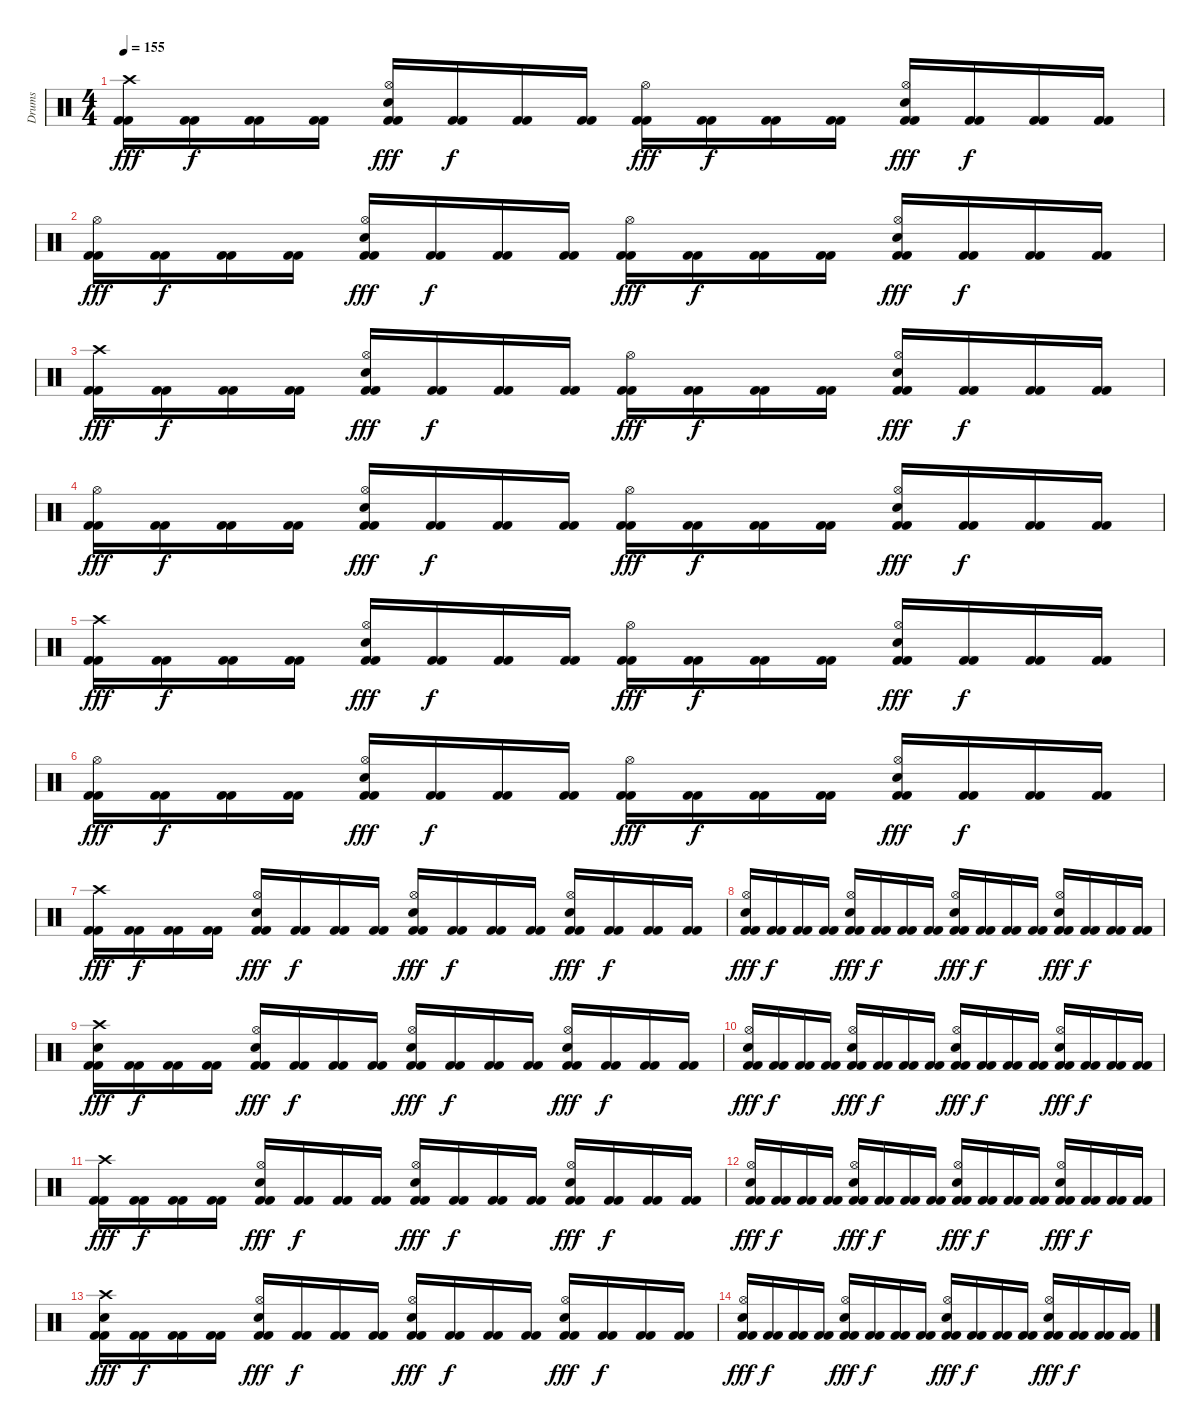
\track ("Drums" "Drums") {instrument percussion}
\staff {score}
\articulation defaults
\ts (4 4)
\tempo 155
\clef neutral
\ks c
("Crash high (hit)" "Kick (hit) 2" "Kick (hit) 2").16{dy fff} ("Kick (hit) 2" "Kick (hit) 2").16{dy f} ("Kick (hit) 2" "Kick (hit) 2").16 ("Kick (hit) 2" "Kick (hit) 2").16 ("Hi-Hat (open)" "Kick (hit) 2" "Kick (hit) 2" "Snare (hit) 2").16{dy fff} ("Kick (hit) 2" "Kick (hit) 2").16{dy f} ("Kick (hit) 2" "Kick (hit) 2").16 ("Kick (hit) 2" "Kick (hit) 2").16 ("Hi-Hat (open)" "Kick (hit) 2" "Kick (hit) 2").16{dy fff} ("Kick (hit) 2" "Kick (hit) 2").16{dy f} ("Kick (hit) 2" "Kick (hit) 2").16 ("Kick (hit) 2" "Kick (hit) 2").16 ("Hi-Hat (open)" "Kick (hit) 2" "Kick (hit) 2" "Snare (hit) 2").16{dy fff} ("Kick (hit) 2" "Kick (hit) 2").16{dy f} ("Kick (hit) 2" "Kick (hit) 2").16 ("Kick (hit) 2" "Kick (hit) 2").16 |
("Hi-Hat (open)" "Kick (hit) 2" "Kick (hit) 2").16{dy fff} ("Kick (hit) 2" "Kick (hit) 2").16{dy f} ("Kick (hit) 2" "Kick (hit) 2").16 ("Kick (hit) 2" "Kick (hit) 2").16 ("Hi-Hat (open)" "Kick (hit) 2" "Kick (hit) 2" "Snare (hit) 2").16{dy fff} ("Kick (hit) 2" "Kick (hit) 2").16{dy f} ("Kick (hit) 2" "Kick (hit) 2").16 ("Kick (hit) 2" "Kick (hit) 2").16 ("Hi-Hat (open)" "Kick (hit) 2" "Kick (hit) 2").16{dy fff} ("Kick (hit) 2" "Kick (hit) 2").16{dy f} ("Kick (hit) 2" "Kick (hit) 2").16 ("Kick (hit) 2" "Kick (hit) 2").16 ("Hi-Hat (open)" "Kick (hit) 2" "Kick (hit) 2" "Snare (hit) 2").16{dy fff} ("Kick (hit) 2" "Kick (hit) 2").16{dy f} ("Kick (hit) 2" "Kick (hit) 2").16 ("Kick (hit) 2" "Kick (hit) 2").16 |
("Crash high (hit)" "Kick (hit) 2" "Kick (hit) 2").16{dy fff} ("Kick (hit) 2" "Kick (hit) 2").16{dy f} ("Kick (hit) 2" "Kick (hit) 2").16 ("Kick (hit) 2" "Kick (hit) 2").16 ("Hi-Hat (open)" "Kick (hit) 2" "Kick (hit) 2" "Snare (hit) 2").16{dy fff} ("Kick (hit) 2" "Kick (hit) 2").16{dy f} ("Kick (hit) 2" "Kick (hit) 2").16 ("Kick (hit) 2" "Kick (hit) 2").16 ("Hi-Hat (open)" "Kick (hit) 2" "Kick (hit) 2").16{dy fff} ("Kick (hit) 2" "Kick (hit) 2").16{dy f} ("Kick (hit) 2" "Kick (hit) 2").16 ("Kick (hit) 2" "Kick (hit) 2").16 ("Hi-Hat (open)" "Kick (hit) 2" "Kick (hit) 2" "Snare (hit) 2").16{dy fff} ("Kick (hit) 2" "Kick (hit) 2").16{dy f} ("Kick (hit) 2" "Kick (hit) 2").16 ("Kick (hit) 2" "Kick (hit) 2").16 |
("Hi-Hat (open)" "Kick (hit) 2" "Kick (hit) 2").16{dy fff} ("Kick (hit) 2" "Kick (hit) 2").16{dy f} ("Kick (hit) 2" "Kick (hit) 2").16 ("Kick (hit) 2" "Kick (hit) 2").16 ("Hi-Hat (open)" "Kick (hit) 2" "Kick (hit) 2" "Snare (hit) 2").16{dy fff} ("Kick (hit) 2" "Kick (hit) 2").16{dy f} ("Kick (hit) 2" "Kick (hit) 2").16 ("Kick (hit) 2" "Kick (hit) 2").16 ("Hi-Hat (open)" "Kick (hit) 2" "Kick (hit) 2").16{dy fff} ("Kick (hit) 2" "Kick (hit) 2").16{dy f} ("Kick (hit) 2" "Kick (hit) 2").16 ("Kick (hit) 2" "Kick (hit) 2").16 ("Hi-Hat (open)" "Kick (hit) 2" "Kick (hit) 2" "Snare (hit) 2").16{dy fff} ("Kick (hit) 2" "Kick (hit) 2").16{dy f} ("Kick (hit) 2" "Kick (hit) 2").16 ("Kick (hit) 2" "Kick (hit) 2").16 |
("Crash high (hit)" "Kick (hit) 2" "Kick (hit) 2").16{dy fff} ("Kick (hit) 2" "Kick (hit) 2").16{dy f} ("Kick (hit) 2" "Kick (hit) 2").16 ("Kick (hit) 2" "Kick (hit) 2").16 ("Hi-Hat (open)" "Kick (hit) 2" "Kick (hit) 2" "Snare (hit) 2").16{dy fff} ("Kick (hit) 2" "Kick (hit) 2").16{dy f} ("Kick (hit) 2" "Kick (hit) 2").16 ("Kick (hit) 2" "Kick (hit) 2").16 ("Hi-Hat (open)" "Kick (hit) 2" "Kick (hit) 2").16{dy fff} ("Kick (hit) 2" "Kick (hit) 2").16{dy f} ("Kick (hit) 2" "Kick (hit) 2").16 ("Kick (hit) 2" "Kick (hit) 2").16 ("Hi-Hat (open)" "Kick (hit) 2" "Kick (hit) 2" "Snare (hit) 2").16{dy fff} ("Kick (hit) 2" "Kick (hit) 2").16{dy f} ("Kick (hit) 2" "Kick (hit) 2").16 ("Kick (hit) 2" "Kick (hit) 2").16 |
("Hi-Hat (open)" "Kick (hit) 2" "Kick (hit) 2").16{dy fff} ("Kick (hit) 2" "Kick (hit) 2").16{dy f} ("Kick (hit) 2" "Kick (hit) 2").16 ("Kick (hit) 2" "Kick (hit) 2").16 ("Hi-Hat (open)" "Kick (hit) 2" "Kick (hit) 2" "Snare (hit) 2").16{dy fff} ("Kick (hit) 2" "Kick (hit) 2").16{dy f} ("Kick (hit) 2" "Kick (hit) 2").16 ("Kick (hit) 2" "Kick (hit) 2").16 ("Hi-Hat (open)" "Kick (hit) 2" "Kick (hit) 2").16{dy fff} ("Kick (hit) 2" "Kick (hit) 2").16{dy f} ("Kick (hit) 2" "Kick (hit) 2").16 ("Kick (hit) 2" "Kick (hit) 2").16 ("Hi-Hat (open)" "Kick (hit) 2" "Kick (hit) 2" "Snare (hit) 2").16{dy fff} ("Kick (hit) 2" "Kick (hit) 2").16{dy f} ("Kick (hit) 2" "Kick (hit) 2").16 ("Kick (hit) 2" "Kick (hit) 2").16 |
("Crash high (hit)" "Kick (hit) 2" "Kick (hit) 2").16{dy fff} ("Kick (hit) 2" "Kick (hit) 2").16{dy f} ("Kick (hit) 2" "Kick (hit) 2").16 ("Kick (hit) 2" "Kick (hit) 2").16 ("Hi-Hat (open)" "Kick (hit) 2" "Kick (hit) 2" "Snare (hit) 2").16{dy fff} ("Kick (hit) 2" "Kick (hit) 2").16{dy f} ("Kick (hit) 2" "Kick (hit) 2").16 ("Kick (hit) 2" "Kick (hit) 2").16 ("Hi-Hat (open)" "Kick (hit) 2" "Kick (hit) 2" "Snare (hit) 2").16{dy fff} ("Kick (hit) 2" "Kick (hit) 2").16{dy f} ("Kick (hit) 2" "Kick (hit) 2").16 ("Kick (hit) 2" "Kick (hit) 2").16 ("Hi-Hat (open)" "Kick (hit) 2" "Kick (hit) 2" "Snare (hit) 2").16{dy fff} ("Kick (hit) 2" "Kick (hit) 2").16{dy f} ("Kick (hit) 2" "Kick (hit) 2").16 ("Kick (hit) 2" "Kick (hit) 2").16 |
("Hi-Hat (open)" "Kick (hit) 2" "Kick (hit) 2" "Snare (hit) 2").16{dy fff} ("Kick (hit) 2" "Kick (hit) 2").16{dy f} ("Kick (hit) 2" "Kick (hit) 2").16 ("Kick (hit) 2" "Kick (hit) 2").16 ("Hi-Hat (open)" "Kick (hit) 2" "Kick (hit) 2" "Snare (hit) 2").16{dy fff} ("Kick (hit) 2" "Kick (hit) 2").16{dy f} ("Kick (hit) 2" "Kick (hit) 2").16 ("Kick (hit) 2" "Kick (hit) 2").16 ("Hi-Hat (open)" "Kick (hit) 2" "Kick (hit) 2" "Snare (hit) 2").16{dy fff} ("Kick (hit) 2" "Kick (hit) 2").16{dy f} ("Kick (hit) 2" "Kick (hit) 2").16 ("Kick (hit) 2" "Kick (hit) 2").16 ("Hi-Hat (open)" "Kick (hit) 2" "Kick (hit) 2" "Snare (hit) 2").16{dy fff} ("Kick (hit) 2" "Kick (hit) 2").16{dy f} ("Kick (hit) 2" "Kick (hit) 2").16 ("Kick (hit) 2" "Kick (hit) 2").16 |
("Crash high (hit)" "Kick (hit) 2" "Kick (hit) 2" "Snare (hit) 2").16{dy fff} ("Kick (hit) 2" "Kick (hit) 2").16{dy f} ("Kick (hit) 2" "Kick (hit) 2").16 ("Kick (hit) 2" "Kick (hit) 2").16 ("Hi-Hat (open)" "Kick (hit) 2" "Kick (hit) 2" "Snare (hit) 2").16{dy fff} ("Kick (hit) 2" "Kick (hit) 2").16{dy f} ("Kick (hit) 2" "Kick (hit) 2").16 ("Kick (hit) 2" "Kick (hit) 2").16 ("Hi-Hat (open)" "Kick (hit) 2" "Kick (hit) 2" "Snare (hit) 2").16{dy fff} ("Kick (hit) 2" "Kick (hit) 2").16{dy f} ("Kick (hit) 2" "Kick (hit) 2").16 ("Kick (hit) 2" "Kick (hit) 2").16 ("Hi-Hat (open)" "Kick (hit) 2" "Kick (hit) 2" "Snare (hit) 2").16{dy fff} ("Kick (hit) 2" "Kick (hit) 2").16{dy f} ("Kick (hit) 2" "Kick (hit) 2").16 ("Kick (hit) 2" "Kick (hit) 2").16 |
("Hi-Hat (open)" "Kick (hit) 2" "Kick (hit) 2" "Snare (hit) 2").16{dy fff} ("Kick (hit) 2" "Kick (hit) 2").16{dy f} ("Kick (hit) 2" "Kick (hit) 2").16 ("Kick (hit) 2" "Kick (hit) 2").16 ("Hi-Hat (open)" "Kick (hit) 2" "Kick (hit) 2" "Snare (hit) 2").16{dy fff} ("Kick (hit) 2" "Kick (hit) 2").16{dy f} ("Kick (hit) 2" "Kick (hit) 2").16 ("Kick (hit) 2" "Kick (hit) 2").16 ("Hi-Hat (open)" "Kick (hit) 2" "Kick (hit) 2" "Snare (hit) 2").16{dy fff} ("Kick (hit) 2" "Kick (hit) 2").16{dy f} ("Kick (hit) 2" "Kick (hit) 2").16 ("Kick (hit) 2" "Kick (hit) 2").16 ("Hi-Hat (open)" "Kick (hit) 2" "Kick (hit) 2" "Snare (hit) 2").16{dy fff} ("Kick (hit) 2" "Kick (hit) 2").16{dy f} ("Kick (hit) 2" "Kick (hit) 2").16 ("Kick (hit) 2" "Kick (hit) 2").16 |
("Crash high (hit)" "Kick (hit) 2" "Kick (hit) 2").16{dy fff volume 0} ("Kick (hit) 2" "Kick (hit) 2").16{dy f} ("Kick (hit) 2" "Kick (hit) 2").16 ("Kick (hit) 2" "Kick (hit) 2").16 ("Hi-Hat (open)" "Kick (hit) 2" "Kick (hit) 2" "Snare (hit) 2").16{dy fff} ("Kick (hit) 2" "Kick (hit) 2").16{dy f} ("Kick (hit) 2" "Kick (hit) 2").16 ("Kick (hit) 2" "Kick (hit) 2").16 ("Hi-Hat (open)" "Kick (hit) 2" "Kick (hit) 2" "Snare (hit) 2").16{dy fff} ("Kick (hit) 2" "Kick (hit) 2").16{dy f} ("Kick (hit) 2" "Kick (hit) 2").16 ("Kick (hit) 2" "Kick (hit) 2").16 ("Hi-Hat (open)" "Kick (hit) 2" "Kick (hit) 2" "Snare (hit) 2").16{dy fff} ("Kick (hit) 2" "Kick (hit) 2").16{dy f} ("Kick (hit) 2" "Kick (hit) 2").16 ("Kick (hit) 2" "Kick (hit) 2").16 |
("Hi-Hat (open)" "Kick (hit) 2" "Kick (hit) 2" "Snare (hit) 2").16{dy fff} ("Kick (hit) 2" "Kick (hit) 2").16{dy f} ("Kick (hit) 2" "Kick (hit) 2").16 ("Kick (hit) 2" "Kick (hit) 2").16 ("Hi-Hat (open)" "Kick (hit) 2" "Kick (hit) 2" "Snare (hit) 2").16{dy fff} ("Kick (hit) 2" "Kick (hit) 2").16{dy f} ("Kick (hit) 2" "Kick (hit) 2").16 ("Kick (hit) 2" "Kick (hit) 2").16 ("Hi-Hat (open)" "Kick (hit) 2" "Kick (hit) 2" "Snare (hit) 2").16{dy fff} ("Kick (hit) 2" "Kick (hit) 2").16{dy f} ("Kick (hit) 2" "Kick (hit) 2").16 ("Kick (hit) 2" "Kick (hit) 2").16 ("Hi-Hat (open)" "Kick (hit) 2" "Kick (hit) 2" "Snare (hit) 2").16{dy fff} ("Kick (hit) 2" "Kick (hit) 2").16{dy f} ("Kick (hit) 2" "Kick (hit) 2").16 ("Kick (hit) 2" "Kick (hit) 2").16 |
("Crash high (hit)" "Kick (hit) 2" "Kick (hit) 2" "Snare (hit) 2").16{dy fff} ("Kick (hit) 2" "Kick (hit) 2").16{dy f} ("Kick (hit) 2" "Kick (hit) 2").16 ("Kick (hit) 2" "Kick (hit) 2").16 ("Hi-Hat (open)" "Kick (hit) 2" "Kick (hit) 2" "Snare (hit) 2").16{dy fff} ("Kick (hit) 2" "Kick (hit) 2").16{dy f} ("Kick (hit) 2" "Kick (hit) 2").16 ("Kick (hit) 2" "Kick (hit) 2").16 ("Hi-Hat (open)" "Kick (hit) 2" "Kick (hit) 2" "Snare (hit) 2").16{dy fff} ("Kick (hit) 2" "Kick (hit) 2").16{dy f} ("Kick (hit) 2" "Kick (hit) 2").16 ("Kick (hit) 2" "Kick (hit) 2").16 ("Hi-Hat (open)" "Kick (hit) 2" "Kick (hit) 2" "Snare (hit) 2").16{dy fff} ("Kick (hit) 2" "Kick (hit) 2").16{dy f} ("Kick (hit) 2" "Kick (hit) 2").16 ("Kick (hit) 2" "Kick (hit) 2").16 |
("Hi-Hat (open)" "Kick (hit) 2" "Kick (hit) 2" "Snare (hit) 2").16{dy fff} ("Kick (hit) 2" "Kick (hit) 2").16{dy f} ("Kick (hit) 2" "Kick (hit) 2").16 ("Kick (hit) 2" "Kick (hit) 2").16 ("Hi-Hat (open)" "Kick (hit) 2" "Kick (hit) 2" "Snare (hit) 2").16{dy fff} ("Kick (hit) 2" "Kick (hit) 2").16{dy f} ("Kick (hit) 2" "Kick (hit) 2").16 ("Kick (hit) 2" "Kick (hit) 2").16 ("Hi-Hat (open)" "Kick (hit) 2" "Kick (hit) 2" "Snare (hit) 2").16{dy fff} ("Kick (hit) 2" "Kick (hit) 2").16{dy f} ("Kick (hit) 2" "Kick (hit) 2").16 ("Kick (hit) 2" "Kick (hit) 2").16 ("Hi-Hat (open)" "Kick (hit) 2" "Kick (hit) 2" "Snare (hit) 2").16{dy fff} ("Kick (hit) 2" "Kick (hit) 2").16{dy f} ("Kick (hit) 2" "Kick (hit) 2").16 ("Kick (hit) 2" "Kick (hit) 2").16
